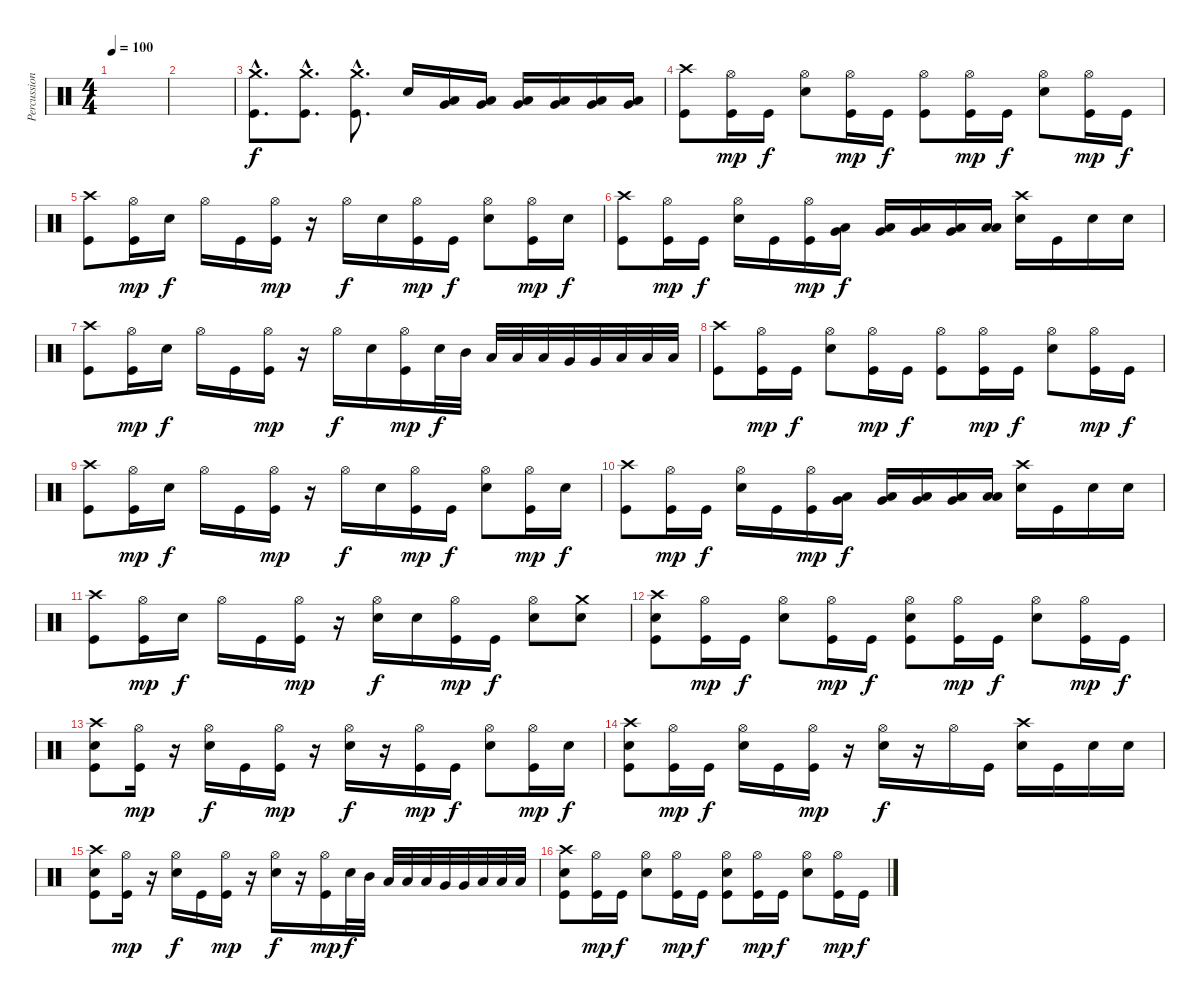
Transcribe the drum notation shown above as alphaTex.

\track ("Percussion" "Percussion") {instrument percussion}
\staff {score}
\articulation defaults
\ts (4 4)
\tempo 100
\clef neutral
\ks c
|
|
("Crash medium (hit)"{hac} "Kick (hit)"{hac}).8{d} ("Crash medium (hit)"{hac} "Kick (hit)"{hac}).8{d} ("Crash medium (hit)"{hac} "Kick (hit)"{hac}).8{d} "Electric Snare (hit)".16 ("Very Low Tom (hit)" "Low Tom (hit)").16 ("Very Low Tom (hit)" "Low Tom (hit)").16 ("Very Low Tom (hit)" "Low Tom (hit)").16 ("Very Low Tom (hit)" "Low Floor Tom (hit)").16 ("Very Low Tom (hit)" "Low Floor Tom (hit)").16 ("Very Low Tom (hit)" "Low Floor Tom (hit)").16 |
("Crash high (hit)" "Kick (hit)").8 ("Hi-Hat (open)" "Kick (hit)").16{dy mp} "Kick (hit)".16{dy f} ("Hi-Hat (open)" "Electric Snare (hit)").8 ("Hi-Hat (open)" "Kick (hit)").16{dy mp} "Kick (hit)".16{dy f} ("Hi-Hat (open)" "Kick (hit)").8 ("Hi-Hat (open)" "Kick (hit)").16{dy mp} "Kick (hit)".16{dy f} ("Hi-Hat (open)" "Electric Snare (hit)").8 ("Hi-Hat (open)" "Kick (hit)").16{dy mp} "Kick (hit)".16{dy f} |
("Crash high (hit)" "Kick (hit)").8 ("Hi-Hat (open)" "Kick (hit)").16{dy mp} "Electric Snare (hit)".16{dy f} "Hi-Hat (open)".16 "Kick (hit)".16 ("Hi-Hat (open)" "Kick (hit)").16{dy mp} r.16 "Hi-Hat (open)".16{dy f} "Electric Snare (hit)".16 ("Hi-Hat (open)" "Kick (hit)").16{dy mp} "Kick (hit)".16{dy f} ("Hi-Hat (open)" "Electric Snare (hit)").8 ("Hi-Hat (open)" "Kick (hit)").16{dy mp} "Electric Snare (hit)".16{dy f} |
("Crash high (hit)" "Kick (hit)").8 ("Hi-Hat (open)" "Kick (hit)").16{dy mp} "Kick (hit)".16{dy f} ("Hi-Hat (open)" "Electric Snare (hit)").16 "Kick (hit)".16 ("Hi-Hat (open)" "Kick (hit)").16{dy mp} ("Low Tom (hit)" "Very Low Tom (hit)").16{dy f} ("Low Tom (hit)" "Very Low Tom (hit)").16 ("Very Low Tom (hit)" "Low Floor Tom (hit)").16 ("Very Low Tom (hit)" "Low Floor Tom (hit)").16 ("Low Floor Tom (hit)" "Low Floor Tom (hit)").16 ("Crash high (hit)" "Electric Snare (hit)").16 "Kick (hit)".16 "Electric Snare (hit)".16 "Electric Snare (hit)".16 |
("Crash high (hit)" "Kick (hit)").8 ("Hi-Hat (open)" "Kick (hit)").16{dy mp} "Electric Snare (hit)".16{dy f} "Hi-Hat (open)".16 "Kick (hit)".16 ("Hi-Hat (open)" "Kick (hit)").16{dy mp} r.16 "Hi-Hat (open)".16{dy f} "Electric Snare (hit)".16 ("Hi-Hat (open)" "Kick (hit)").16{dy mp} "Electric Snare (hit)".32{dy f} "Mid Tom (hit)".32 "Low Tom (hit)".32 "Low Tom (hit)".32 "Low Tom (hit)".32 "Very Low Tom (hit)".32 "Very Low Tom (hit)".32 "Low Floor Tom (hit)".32 "Low Floor Tom (hit)".32 "Low Floor Tom (hit)".32 |
("Crash high (hit)" "Kick (hit)").8 ("Hi-Hat (open)" "Kick (hit)").16{dy mp} "Kick (hit)".16{dy f} ("Hi-Hat (open)" "Electric Snare (hit)").8 ("Hi-Hat (open)" "Kick (hit)").16{dy mp} "Kick (hit)".16{dy f} ("Hi-Hat (open)" "Kick (hit)").8 ("Hi-Hat (open)" "Kick (hit)").16{dy mp} "Kick (hit)".16{dy f} ("Hi-Hat (open)" "Electric Snare (hit)").8 ("Hi-Hat (open)" "Kick (hit)").16{dy mp} "Kick (hit)".16{dy f} |
("Crash high (hit)" "Kick (hit)").8 ("Hi-Hat (open)" "Kick (hit)").16{dy mp} "Electric Snare (hit)".16{dy f} "Hi-Hat (open)".16 "Kick (hit)".16 ("Hi-Hat (open)" "Kick (hit)").16{dy mp} r.16 "Hi-Hat (open)".16{dy f} "Electric Snare (hit)".16 ("Hi-Hat (open)" "Kick (hit)").16{dy mp} "Kick (hit)".16{dy f} ("Hi-Hat (open)" "Electric Snare (hit)").8 ("Hi-Hat (open)" "Kick (hit)").16{dy mp} "Electric Snare (hit)".16{dy f} |
("Crash high (hit)" "Kick (hit)").8 ("Hi-Hat (open)" "Kick (hit)").16{dy mp} "Kick (hit)".16{dy f} ("Hi-Hat (open)" "Electric Snare (hit)").16 "Kick (hit)".16 ("Hi-Hat (open)" "Kick (hit)").16{dy mp} ("Low Tom (hit)" "Very Low Tom (hit)").16{dy f} ("Low Tom (hit)" "Very Low Tom (hit)").16 ("Very Low Tom (hit)" "Low Floor Tom (hit)").16 ("Very Low Tom (hit)" "Low Floor Tom (hit)").16 ("Low Floor Tom (hit)" "Low Floor Tom (hit)").16 ("Crash high (hit)" "Electric Snare (hit)").16 "Kick (hit)".16 "Electric Snare (hit)".16 "Electric Snare (hit)".16 |
("Crash high (hit)" "Kick (hit)").8 ("Hi-Hat (open)" "Kick (hit)").16{dy mp} "Electric Snare (hit)".16{dy f} "Hi-Hat (open)".16 "Kick (hit)".16 ("Hi-Hat (open)" "Kick (hit)").16{dy mp} r.16 ("Hi-Hat (open)" "Electric Snare (hit)").16{dy f} "Electric Snare (hit)".16 ("Hi-Hat (open)" "Kick (hit)").16{dy mp} "Kick (hit)".16{dy f} ("Hi-Hat (open)" "Electric Snare (hit)").8 ("Crash medium (hit)" "Electric Snare (hit)").8 |
("Crash high (hit)" "Electric Snare (hit)" "Kick (hit)").8 ("Hi-Hat (open)" "Kick (hit)").16{dy mp} "Kick (hit)".16{dy f} ("Hi-Hat (open)" "Electric Snare (hit)").8 ("Hi-Hat (open)" "Kick (hit)").16{dy mp} "Kick (hit)".16{dy f} ("Hi-Hat (open)" "Electric Snare (hit)" "Kick (hit)").8 ("Hi-Hat (open)" "Kick (hit)").16{dy mp} "Kick (hit)".16{dy f} ("Hi-Hat (open)" "Electric Snare (hit)").8 ("Hi-Hat (open)" "Kick (hit)").16{dy mp} "Kick (hit)".16{dy f} |
("Crash high (hit)" "Electric Snare (hit)" "Kick (hit)").8 ("Hi-Hat (open)" "Kick (hit)").16{dy mp} r.16 ("Hi-Hat (open)" "Electric Snare (hit)").16{dy f} "Kick (hit)".16 ("Hi-Hat (open)" "Kick (hit)").16{dy mp} r.16 ("Hi-Hat (open)" "Electric Snare (hit)").16{dy f} r.16 ("Hi-Hat (open)" "Kick (hit)").16{dy mp} "Kick (hit)".16{dy f} ("Hi-Hat (open)" "Electric Snare (hit)").8 ("Hi-Hat (open)" "Kick (hit)").16{dy mp} "Electric Snare (hit)".16{dy f} |
("Crash high (hit)" "Electric Snare (hit)" "Kick (hit)").8 ("Hi-Hat (open)" "Kick (hit)").16{dy mp} "Kick (hit)".16{dy f} ("Hi-Hat (open)" "Electric Snare (hit)").16 "Kick (hit)".16 ("Hi-Hat (open)" "Kick (hit)").16{dy mp} r.16 ("Hi-Hat (open)" "Electric Snare (hit)").16{dy f} r.16 "Hi-Hat (open)".16 "Kick (hit)".16 ("Crash high (hit)" "Electric Snare (hit)").16 "Kick (hit)".16 "Electric Snare (hit)".16 "Electric Snare (hit)".16 |
("Crash high (hit)" "Electric Snare (hit)" "Kick (hit)").8 ("Hi-Hat (open)" "Kick (hit)").16{dy mp} r.16 ("Hi-Hat (open)" "Electric Snare (hit)").16{dy f} "Kick (hit)".16 ("Hi-Hat (open)" "Kick (hit)").16{dy mp} r.16 ("Hi-Hat (open)" "Electric Snare (hit)").16{dy f} r.16 ("Hi-Hat (open)" "Kick (hit)").16{dy mp} "Electric Snare (hit)".32{dy f} "Mid Tom (hit)".32 "Low Tom (hit)".32 "Low Tom (hit)".32 "Low Tom (hit)".32 "Very Low Tom (hit)".32 "Very Low Tom (hit)".32 "Low Floor Tom (hit)".32 "Low Floor Tom (hit)".32 "Low Floor Tom (hit)".32 |
("Crash high (hit)" "Electric Snare (hit)" "Kick (hit)").8 ("Hi-Hat (open)" "Kick (hit)").16{dy mp} "Kick (hit)".16{dy f} ("Hi-Hat (open)" "Electric Snare (hit)").8 ("Hi-Hat (open)" "Kick (hit)").16{dy mp} "Kick (hit)".16{dy f} ("Hi-Hat (open)" "Electric Snare (hit)" "Kick (hit)").8 ("Hi-Hat (open)" "Kick (hit)").16{dy mp} "Kick (hit)".16{dy f} ("Hi-Hat (open)" "Electric Snare (hit)").8 ("Hi-Hat (open)" "Kick (hit)").16{dy mp} "Kick (hit)".16{dy f}
